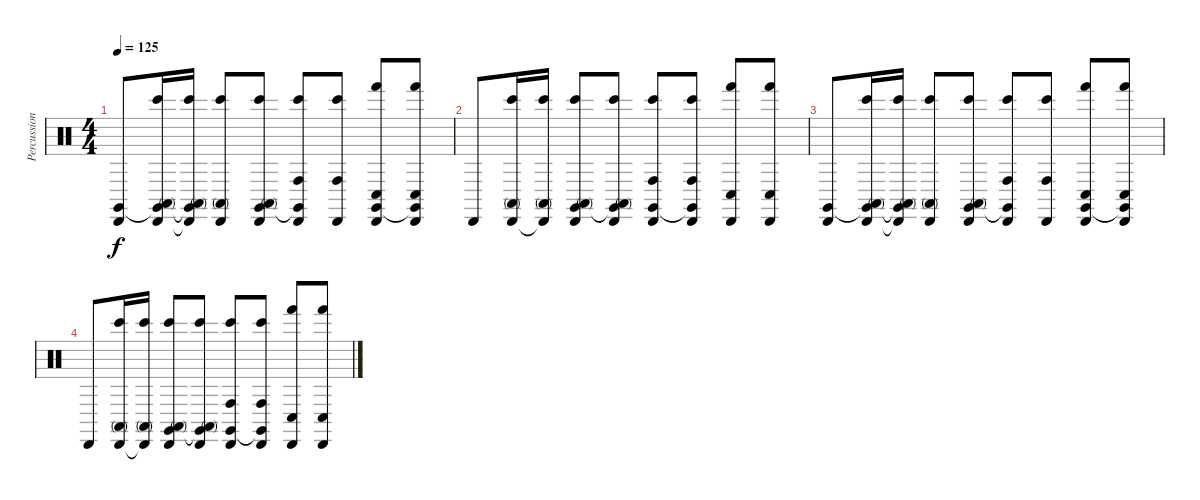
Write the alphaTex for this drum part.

\track ("Percussion" "Percussion") {instrument percussion}
\staff {score}
\articulation defaults
\ts (4 4)
\tempo 125
\clef neutral
\ks c
("Claves (hit)" "Cabasa (hit)").8{dy f} ("Claves (hit)"{t} "Bongo High (hit)" "Conga high (mute)" "Cabasa (hit)").16 ("Claves (hit)"{t} "Bongo High (hit)" "Conga high (mute)" "Cabasa (hit)"{t}).16 ("Bongo High (hit)" "Conga high (mute)" "Cabasa (hit)").8 ("Claves (hit)" "Bongo High (hit)" "Conga high (mute)" "Cabasa (hit)").8 ("Claves (hit)"{t} "Bongo High (hit)" "Conga high (hit)" "Cabasa (hit)").8 ("Bongo High (hit)" "Conga high (hit)" "Cabasa (hit)").8 ("Claves (hit)" "Hand (hit)" "Conga low (hit)" "Cabasa (hit)").8 ("Claves (hit)"{t} "Hand (hit)" "Conga low (hit)" "Cabasa (hit)").8 |
"Cabasa (hit)".8 ("Bongo High (hit)" "Conga high (mute)" "Cabasa (hit)").16 ("Bongo High (hit)" "Conga high (mute)" "Cabasa (hit)"{t}).16 ("Claves (hit)" "Bongo High (hit)" "Conga high (mute)" "Cabasa (hit)").8 ("Claves (hit)"{t} "Bongo High (hit)" "Conga high (mute)" "Cabasa (hit)").8 ("Claves (hit)" "Bongo High (hit)" "Conga high (hit)" "Cabasa (hit)").8 ("Claves (hit)"{t} "Bongo High (hit)" "Conga high (hit)" "Cabasa (hit)").8 ("Hand (hit)" "Conga low (hit)" "Cabasa (hit)").8 ("Hand (hit)" "Conga low (hit)" "Cabasa (hit)").8 |
("Claves (hit)" "Cabasa (hit)").8 ("Claves (hit)"{t} "Bongo High (hit)" "Conga high (mute)" "Cabasa (hit)").16 ("Claves (hit)"{t} "Bongo High (hit)" "Conga high (mute)" "Cabasa (hit)"{t}).16 ("Bongo High (hit)" "Conga high (mute)" "Cabasa (hit)").8 ("Claves (hit)" "Bongo High (hit)" "Conga high (mute)" "Cabasa (hit)").8 ("Claves (hit)"{t} "Bongo High (hit)" "Conga high (hit)" "Cabasa (hit)").8 ("Bongo High (hit)" "Conga high (hit)" "Cabasa (hit)").8 ("Claves (hit)" "Hand (hit)" "Conga low (hit)" "Cabasa (hit)").8 ("Claves (hit)"{t} "Hand (hit)" "Conga low (hit)" "Cabasa (hit)").8 |
"Cabasa (hit)".8 ("Bongo High (hit)" "Conga high (mute)" "Cabasa (hit)").16 ("Bongo High (hit)" "Conga high (mute)" "Cabasa (hit)"{t}).16 ("Claves (hit)" "Bongo High (hit)" "Conga high (mute)" "Cabasa (hit)").8 ("Claves (hit)"{t} "Bongo High (hit)" "Conga high (mute)" "Cabasa (hit)").8 ("Claves (hit)" "Bongo High (hit)" "Conga high (hit)" "Cabasa (hit)").8 ("Claves (hit)"{t} "Bongo High (hit)" "Conga high (hit)" "Cabasa (hit)").8 ("Hand (hit)" "Conga low (hit)" "Cabasa (hit)").8 ("Hand (hit)" "Conga low (hit)" "Cabasa (hit)").8
